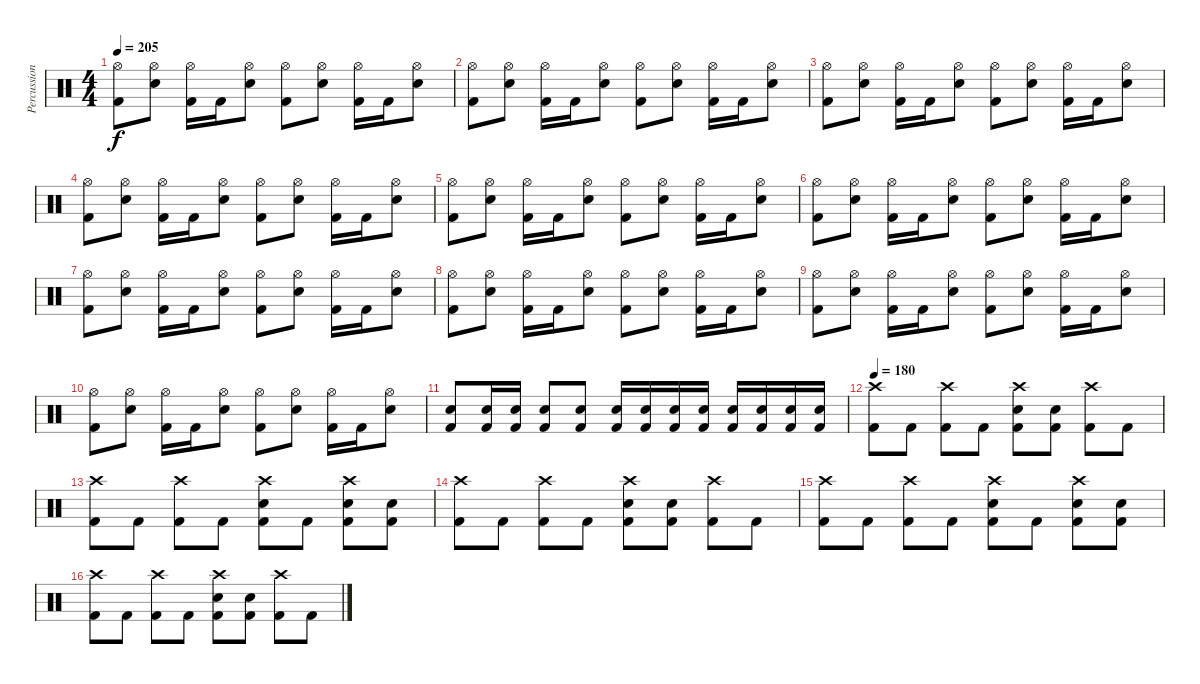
\track ("Percussion" "Percussion") {instrument percussion}
\staff {score}
\articulation defaults
\ts (4 4)
\tempo 205
\clef neutral
\ks c
("Hi-Hat (open)" "Kick (hit) 2").8{dy f} ("Hi-Hat (open)" "Electric Snare (hit)").8 ("Hi-Hat (open)" "Kick (hit) 2").16 "Kick (hit) 2".16 ("Hi-Hat (open)" "Electric Snare (hit)").8 ("Hi-Hat (open)" "Kick (hit) 2").8 ("Hi-Hat (open)" "Electric Snare (hit)").8 ("Hi-Hat (open)" "Kick (hit) 2").16 "Kick (hit) 2".16 ("Hi-Hat (open)" "Electric Snare (hit)").8 |
("Hi-Hat (open)" "Kick (hit) 2").8 ("Hi-Hat (open)" "Electric Snare (hit)").8 ("Hi-Hat (open)" "Kick (hit) 2").16 "Kick (hit) 2".16 ("Hi-Hat (open)" "Electric Snare (hit)").8 ("Hi-Hat (open)" "Kick (hit) 2").8 ("Hi-Hat (open)" "Electric Snare (hit)").8 ("Hi-Hat (open)" "Kick (hit) 2").16 "Kick (hit) 2".16 ("Hi-Hat (open)" "Electric Snare (hit)").8 |
("Hi-Hat (open)" "Kick (hit) 2").8 ("Hi-Hat (open)" "Electric Snare (hit)").8 ("Hi-Hat (open)" "Kick (hit) 2").16 "Kick (hit) 2".16 ("Hi-Hat (open)" "Electric Snare (hit)").8 ("Hi-Hat (open)" "Kick (hit) 2").8 ("Hi-Hat (open)" "Electric Snare (hit)").8 ("Hi-Hat (open)" "Kick (hit) 2").16 "Kick (hit) 2".16 ("Hi-Hat (open)" "Electric Snare (hit)").8 |
("Hi-Hat (open)" "Kick (hit) 2").8 ("Hi-Hat (open)" "Electric Snare (hit)").8 ("Hi-Hat (open)" "Kick (hit) 2").16 "Kick (hit) 2".16 ("Hi-Hat (open)" "Electric Snare (hit)").8 ("Hi-Hat (open)" "Kick (hit) 2").8 ("Hi-Hat (open)" "Electric Snare (hit)").8 ("Hi-Hat (open)" "Kick (hit) 2").16 "Kick (hit) 2".16 ("Hi-Hat (open)" "Electric Snare (hit)").8 |
("Hi-Hat (open)" "Kick (hit) 2").8 ("Hi-Hat (open)" "Electric Snare (hit)").8 ("Hi-Hat (open)" "Kick (hit) 2").16 "Kick (hit) 2".16 ("Hi-Hat (open)" "Electric Snare (hit)").8 ("Hi-Hat (open)" "Kick (hit) 2").8 ("Hi-Hat (open)" "Electric Snare (hit)").8 ("Hi-Hat (open)" "Kick (hit) 2").16 "Kick (hit) 2".16 ("Hi-Hat (open)" "Electric Snare (hit)").8 |
("Hi-Hat (open)" "Kick (hit) 2").8 ("Hi-Hat (open)" "Electric Snare (hit)").8 ("Hi-Hat (open)" "Kick (hit) 2").16 "Kick (hit) 2".16 ("Hi-Hat (open)" "Electric Snare (hit)").8 ("Hi-Hat (open)" "Kick (hit) 2").8 ("Hi-Hat (open)" "Electric Snare (hit)").8 ("Hi-Hat (open)" "Kick (hit) 2").16 "Kick (hit) 2".16 ("Hi-Hat (open)" "Electric Snare (hit)").8 |
("Hi-Hat (open)" "Kick (hit) 2").8 ("Hi-Hat (open)" "Electric Snare (hit)").8 ("Hi-Hat (open)" "Kick (hit) 2").16 "Kick (hit) 2".16 ("Hi-Hat (open)" "Electric Snare (hit)").8 ("Hi-Hat (open)" "Kick (hit) 2").8 ("Hi-Hat (open)" "Electric Snare (hit)").8 ("Hi-Hat (open)" "Kick (hit) 2").16 "Kick (hit) 2".16 ("Hi-Hat (open)" "Electric Snare (hit)").8 |
("Hi-Hat (open)" "Kick (hit) 2").8 ("Hi-Hat (open)" "Electric Snare (hit)").8 ("Hi-Hat (open)" "Kick (hit) 2").16 "Kick (hit) 2".16 ("Hi-Hat (open)" "Electric Snare (hit)").8 ("Hi-Hat (open)" "Kick (hit) 2").8 ("Hi-Hat (open)" "Electric Snare (hit)").8 ("Hi-Hat (open)" "Kick (hit) 2").16 "Kick (hit) 2".16 ("Hi-Hat (open)" "Electric Snare (hit)").8 |
("Hi-Hat (open)" "Kick (hit) 2").8 ("Hi-Hat (open)" "Electric Snare (hit)").8 ("Hi-Hat (open)" "Kick (hit) 2").16 "Kick (hit) 2".16 ("Hi-Hat (open)" "Electric Snare (hit)").8 ("Hi-Hat (open)" "Kick (hit) 2").8 ("Hi-Hat (open)" "Electric Snare (hit)").8 ("Hi-Hat (open)" "Kick (hit) 2").16 "Kick (hit) 2".16 ("Hi-Hat (open)" "Electric Snare (hit)").8 |
("Hi-Hat (open)" "Kick (hit) 2").8 ("Hi-Hat (open)" "Electric Snare (hit)").8 ("Hi-Hat (open)" "Kick (hit) 2").16 "Kick (hit) 2".16 ("Hi-Hat (open)" "Electric Snare (hit)").8 ("Hi-Hat (open)" "Kick (hit) 2").8 ("Hi-Hat (open)" "Electric Snare (hit)").8 ("Hi-Hat (open)" "Kick (hit) 2").16 "Kick (hit) 2".16 ("Hi-Hat (open)" "Electric Snare (hit)").8 |
("Electric Snare (hit)" "Kick (hit) 2").8 ("Electric Snare (hit)" "Kick (hit) 2").16 ("Electric Snare (hit)" "Kick (hit) 2").16 ("Electric Snare (hit)" "Kick (hit) 2").8 ("Electric Snare (hit)" "Kick (hit) 2").8 ("Electric Snare (hit)" "Kick (hit) 2").16 ("Electric Snare (hit)" "Kick (hit) 2").16 ("Electric Snare (hit)" "Kick (hit) 2").16 ("Electric Snare (hit)" "Kick (hit) 2").16 ("Electric Snare (hit)" "Kick (hit) 2").16 ("Electric Snare (hit)" "Kick (hit) 2").16 ("Electric Snare (hit)" "Kick (hit) 2").16 ("Electric Snare (hit)" "Kick (hit) 2").16 |
\tempo 180
("Crash high (hit)" "Kick (hit) 2").8 "Kick (hit) 2".8 ("Crash high (hit)" "Kick (hit) 2").8 "Kick (hit) 2".8 ("Crash high (hit)" "Electric Snare (hit)" "Kick (hit) 2").8 ("Electric Snare (hit)" "Kick (hit) 2").8 ("Crash high (hit)" "Kick (hit) 2").8 "Kick (hit) 2".8 |
("Crash high (hit)" "Kick (hit) 2").8 "Kick (hit) 2".8 ("Crash high (hit)" "Kick (hit) 2").8 "Kick (hit) 2".8 ("Crash high (hit)" "Electric Snare (hit)" "Kick (hit) 2").8 "Kick (hit) 2".8 ("Crash high (hit)" "Electric Snare (hit)" "Kick (hit) 2").8 ("Electric Snare (hit)" "Kick (hit) 2").8 |
("Crash high (hit)" "Kick (hit) 2").8 "Kick (hit) 2".8 ("Crash high (hit)" "Kick (hit) 2").8 "Kick (hit) 2".8 ("Crash high (hit)" "Electric Snare (hit)" "Kick (hit) 2").8 ("Electric Snare (hit)" "Kick (hit) 2").8 ("Crash high (hit)" "Kick (hit) 2").8 "Kick (hit) 2".8 |
("Crash high (hit)" "Kick (hit) 2").8 "Kick (hit) 2".8 ("Crash high (hit)" "Kick (hit) 2").8 "Kick (hit) 2".8 ("Crash high (hit)" "Electric Snare (hit)" "Kick (hit) 2").8 "Kick (hit) 2".8 ("Crash high (hit)" "Electric Snare (hit)" "Kick (hit) 2").8 ("Electric Snare (hit)" "Kick (hit) 2").8 |
("Crash high (hit)" "Kick (hit) 2").8 "Kick (hit) 2".8 ("Crash high (hit)" "Kick (hit) 2").8 "Kick (hit) 2".8 ("Crash high (hit)" "Electric Snare (hit)" "Kick (hit) 2").8 ("Electric Snare (hit)" "Kick (hit) 2").8 ("Crash high (hit)" "Kick (hit) 2").8 "Kick (hit) 2".8
